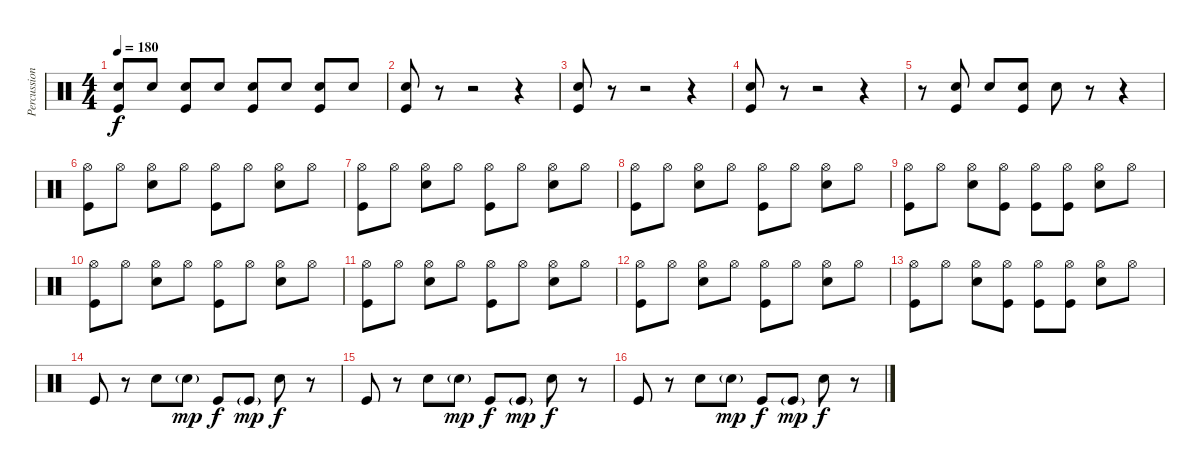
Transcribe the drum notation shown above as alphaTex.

\track ("Percussion" "Percussion") {instrument percussion}
\staff {score}
\articulation defaults
\ts (4 4)
\tempo 180
\clef neutral
\ks c
("Snare (hit) 2" "Kick (hit)").8{dy f} "Snare (hit) 2".8 ("Snare (hit) 2" "Kick (hit)").8 "Snare (hit) 2".8 ("Snare (hit) 2" "Kick (hit)").8 "Snare (hit) 2".8 ("Snare (hit) 2" "Kick (hit)").8 "Snare (hit) 2".8 |
("Snare (hit) 2" "Kick (hit)").8 r.8 r.2 r.4 |
("Snare (hit) 2" "Kick (hit)").8 r.8 r.2 r.4 |
("Snare (hit) 2" "Kick (hit)").8 r.8 r.2 r.4 |
r.8 ("Snare (hit) 2" "Kick (hit)").8 "Snare (hit) 2".8 ("Snare (hit) 2" "Kick (hit)").8 "Snare (hit) 2".8 r.8 r.4 |
("Hi-Hat (open)" "Kick (hit)").8 "Hi-Hat (open)".8 ("Hi-Hat (open)" "Snare (hit) 2").8 "Hi-Hat (open)".8 ("Hi-Hat (open)" "Kick (hit)").8 "Hi-Hat (open)".8 ("Hi-Hat (open)" "Snare (hit) 2").8 "Hi-Hat (open)".8 |
("Hi-Hat (open)" "Kick (hit)").8 "Hi-Hat (open)".8 ("Hi-Hat (open)" "Snare (hit) 2").8 "Hi-Hat (open)".8 ("Hi-Hat (open)" "Kick (hit)").8 "Hi-Hat (open)".8 ("Hi-Hat (open)" "Snare (hit) 2").8 "Hi-Hat (open)".8 |
("Hi-Hat (open)" "Kick (hit)").8 "Hi-Hat (open)".8 ("Hi-Hat (open)" "Snare (hit) 2").8 "Hi-Hat (open)".8 ("Hi-Hat (open)" "Kick (hit)").8 "Hi-Hat (open)".8 ("Hi-Hat (open)" "Snare (hit) 2").8 "Hi-Hat (open)".8 |
("Hi-Hat (open)" "Kick (hit)").8 "Hi-Hat (open)".8 ("Hi-Hat (open)" "Snare (hit) 2").8 ("Hi-Hat (open)" "Kick (hit)").8 ("Hi-Hat (open)" "Kick (hit)").8 ("Hi-Hat (open)" "Kick (hit)").8 ("Hi-Hat (open)" "Snare (hit) 2").8 "Hi-Hat (open)".8 |
("Hi-Hat (open)" "Kick (hit)").8 "Hi-Hat (open)".8 ("Hi-Hat (open)" "Snare (hit) 2").8 "Hi-Hat (open)".8 ("Hi-Hat (open)" "Kick (hit)").8 "Hi-Hat (open)".8 ("Hi-Hat (open)" "Snare (hit) 2").8 "Hi-Hat (open)".8 |
("Hi-Hat (open)" "Kick (hit)").8 "Hi-Hat (open)".8 ("Hi-Hat (open)" "Snare (hit) 2").8 "Hi-Hat (open)".8 ("Hi-Hat (open)" "Kick (hit)").8 "Hi-Hat (open)".8 ("Hi-Hat (open)" "Snare (hit) 2").8 "Hi-Hat (open)".8 |
("Hi-Hat (open)" "Kick (hit)").8 "Hi-Hat (open)".8 ("Hi-Hat (open)" "Snare (hit) 2").8 "Hi-Hat (open)".8 ("Hi-Hat (open)" "Kick (hit)").8 "Hi-Hat (open)".8 ("Hi-Hat (open)" "Snare (hit) 2").8 "Hi-Hat (open)".8 |
("Hi-Hat (open)" "Kick (hit)").8 "Hi-Hat (open)".8 ("Hi-Hat (open)" "Snare (hit) 2").8 ("Hi-Hat (open)" "Kick (hit)").8 ("Hi-Hat (open)" "Kick (hit)").8 ("Hi-Hat (open)" "Kick (hit)").8 ("Hi-Hat (open)" "Snare (hit) 2").8 "Hi-Hat (open)".8 |
"Kick (hit)".8 r.8 "Snare (hit) 2".8 "Snare (hit) 2"{g}.8{dy mp} "Kick (hit)".8{dy f} "Kick (hit)"{g}.8{dy mp} "Snare (hit) 2".8{dy f} r.8 |
"Kick (hit)".8 r.8 "Snare (hit) 2".8 "Snare (hit) 2"{g}.8{dy mp} "Kick (hit)".8{dy f} "Kick (hit)"{g}.8{dy mp} "Snare (hit) 2".8{dy f} r.8 |
"Kick (hit)".8 r.8 "Snare (hit) 2".8 "Snare (hit) 2"{g}.8{dy mp} "Kick (hit)".8{dy f} "Kick (hit)"{g}.8{dy mp} "Snare (hit) 2".8{dy f} r.8
